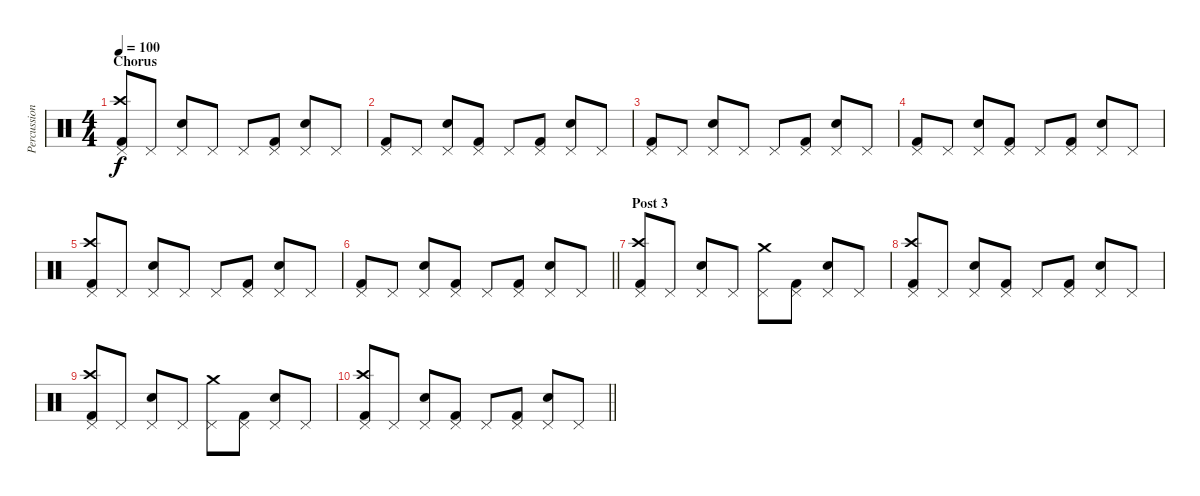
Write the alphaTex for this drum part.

\track ("Percussion" "Percussion") {instrument percussion}
\staff {score}
\articulation defaults
\ts (4 4)
\section ("" "Chorus")
\tempo 100
\clef neutral
\ks c
("Pedal Hi-Hat (hit)" "Crash high (hit)" "Kick (hit) 2").8{dy f} "Pedal Hi-Hat (hit)".8 ("Pedal Hi-Hat (hit)" "Electric Snare (hit)").8 "Pedal Hi-Hat (hit)".8 "Pedal Hi-Hat (hit)".8 ("Pedal Hi-Hat (hit)" "Kick (hit) 2").8 ("Pedal Hi-Hat (hit)" "Electric Snare (hit)").8 "Pedal Hi-Hat (hit)".8 |
("Pedal Hi-Hat (hit)" "Kick (hit) 2").8 "Pedal Hi-Hat (hit)".8 ("Pedal Hi-Hat (hit)" "Electric Snare (hit)").8 ("Pedal Hi-Hat (hit)" "Kick (hit) 2").8 "Pedal Hi-Hat (hit)".8 ("Pedal Hi-Hat (hit)" "Kick (hit) 2").8 ("Pedal Hi-Hat (hit)" "Electric Snare (hit)").8 "Pedal Hi-Hat (hit)".8 |
("Pedal Hi-Hat (hit)" "Kick (hit) 2").8 "Pedal Hi-Hat (hit)".8 ("Pedal Hi-Hat (hit)" "Electric Snare (hit)").8 "Pedal Hi-Hat (hit)".8 "Pedal Hi-Hat (hit)".8 ("Pedal Hi-Hat (hit)" "Kick (hit) 2").8 ("Pedal Hi-Hat (hit)" "Electric Snare (hit)").8 "Pedal Hi-Hat (hit)".8 |
("Pedal Hi-Hat (hit)" "Kick (hit) 2").8 "Pedal Hi-Hat (hit)".8 ("Pedal Hi-Hat (hit)" "Electric Snare (hit)").8 ("Pedal Hi-Hat (hit)" "Kick (hit) 2").8 "Pedal Hi-Hat (hit)".8 ("Pedal Hi-Hat (hit)" "Kick (hit) 2").8 ("Pedal Hi-Hat (hit)" "Electric Snare (hit)").8 "Pedal Hi-Hat (hit)".8 |
("Pedal Hi-Hat (hit)" "Crash high (hit)" "Kick (hit) 2").8 "Pedal Hi-Hat (hit)".8 ("Pedal Hi-Hat (hit)" "Electric Snare (hit)").8 "Pedal Hi-Hat (hit)".8 "Pedal Hi-Hat (hit)".8 ("Pedal Hi-Hat (hit)" "Kick (hit) 2").8 ("Pedal Hi-Hat (hit)" "Electric Snare (hit)").8 "Pedal Hi-Hat (hit)".8 |
\barLineRight lightlight
("Pedal Hi-Hat (hit)" "Kick (hit) 2").8 "Pedal Hi-Hat (hit)".8 ("Pedal Hi-Hat (hit)" "Electric Snare (hit)").8 ("Pedal Hi-Hat (hit)" "Kick (hit) 2").8 "Pedal Hi-Hat (hit)".8 ("Pedal Hi-Hat (hit)" "Kick (hit) 2").8 ("Pedal Hi-Hat (hit)" "Electric Snare (hit)").8 "Pedal Hi-Hat (hit)".8 |
\section ("" "Post 3")
("Pedal Hi-Hat (hit)" "Crash high (hit)" "Kick (hit) 2").8 "Pedal Hi-Hat (hit)".8 ("Pedal Hi-Hat (hit)" "Electric Snare (hit)").8 "Pedal Hi-Hat (hit)".8 ("Pedal Hi-Hat (hit)" "Crash medium (hit)").8 ("Pedal Hi-Hat (hit)" "Kick (hit) 2").8 ("Pedal Hi-Hat (hit)" "Electric Snare (hit)").8 "Pedal Hi-Hat (hit)".8 |
("Pedal Hi-Hat (hit)" "Crash high (hit)" "Kick (hit) 2").8 "Pedal Hi-Hat (hit)".8 ("Pedal Hi-Hat (hit)" "Electric Snare (hit)").8 ("Pedal Hi-Hat (hit)" "Kick (hit) 2").8 "Pedal Hi-Hat (hit)".8 ("Pedal Hi-Hat (hit)" "Kick (hit) 2").8 ("Pedal Hi-Hat (hit)" "Electric Snare (hit)").8 "Pedal Hi-Hat (hit)".8 |
("Pedal Hi-Hat (hit)" "Crash high (hit)" "Kick (hit) 2").8 "Pedal Hi-Hat (hit)".8 ("Pedal Hi-Hat (hit)" "Electric Snare (hit)").8 "Pedal Hi-Hat (hit)".8 ("Pedal Hi-Hat (hit)" "Crash medium (hit)").8 ("Pedal Hi-Hat (hit)" "Kick (hit) 2").8 ("Pedal Hi-Hat (hit)" "Electric Snare (hit)").8 "Pedal Hi-Hat (hit)".8 |
\barLineRight lightlight
("Pedal Hi-Hat (hit)" "Crash high (hit)" "Kick (hit) 2").8 "Pedal Hi-Hat (hit)".8 ("Pedal Hi-Hat (hit)" "Electric Snare (hit)").8 ("Pedal Hi-Hat (hit)" "Kick (hit) 2").8 "Pedal Hi-Hat (hit)".8 ("Pedal Hi-Hat (hit)" "Kick (hit) 2").8 ("Pedal Hi-Hat (hit)" "Electric Snare (hit)").8 "Pedal Hi-Hat (hit)".8
